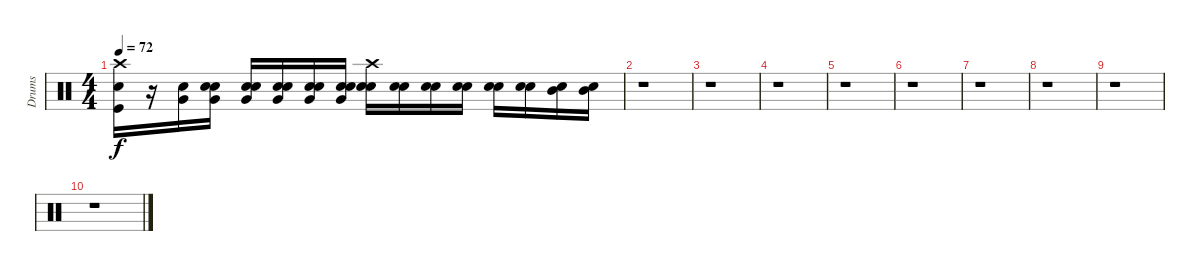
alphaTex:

\track ("Drums" "Drums") {instrument percussion}
\staff {score}
\articulation defaults
\ts (4 4)
\tempo 72
\clef neutral
\ks c
("Kick (hit)" "Snare (hit) 2" "Crash high (hit)").16{dy f} r.16 ("Very Low Tom (hit)" "Snare (hit) 2").16 ("Snare (hit)" "Very Low Tom (hit)" "Snare (hit) 2").16 ("Snare (hit)" "Very Low Tom (hit)" "Snare (hit) 2").16 ("Snare (hit)" "Very Low Tom (hit)" "Snare (hit) 2").16 ("Snare (hit)" "Very Low Tom (hit)" "Snare (hit) 2").16 ("Snare (hit)" "Very Low Tom (hit)" "Snare (hit) 2").16 ("Snare (hit)" "Snare (hit) 2" "Crash high (hit)").16 ("Snare (hit)" "Snare (hit) 2").16 ("Snare (hit)" "Snare (hit) 2").16 ("Snare (hit)" "Snare (hit) 2").16 ("Snare (hit)" "Snare (hit) 2").16 ("Snare (hit)" "Snare (hit) 2").16 ("Snare (hit)" "Mid Tom (hit)").16 ("Snare (hit)" "Mid Tom (hit)").16 |
r.1 |
r.1 |
r.1 |
r.1 |
r.1 |
r.1 |
r.1 |
r.1 |
r.1
